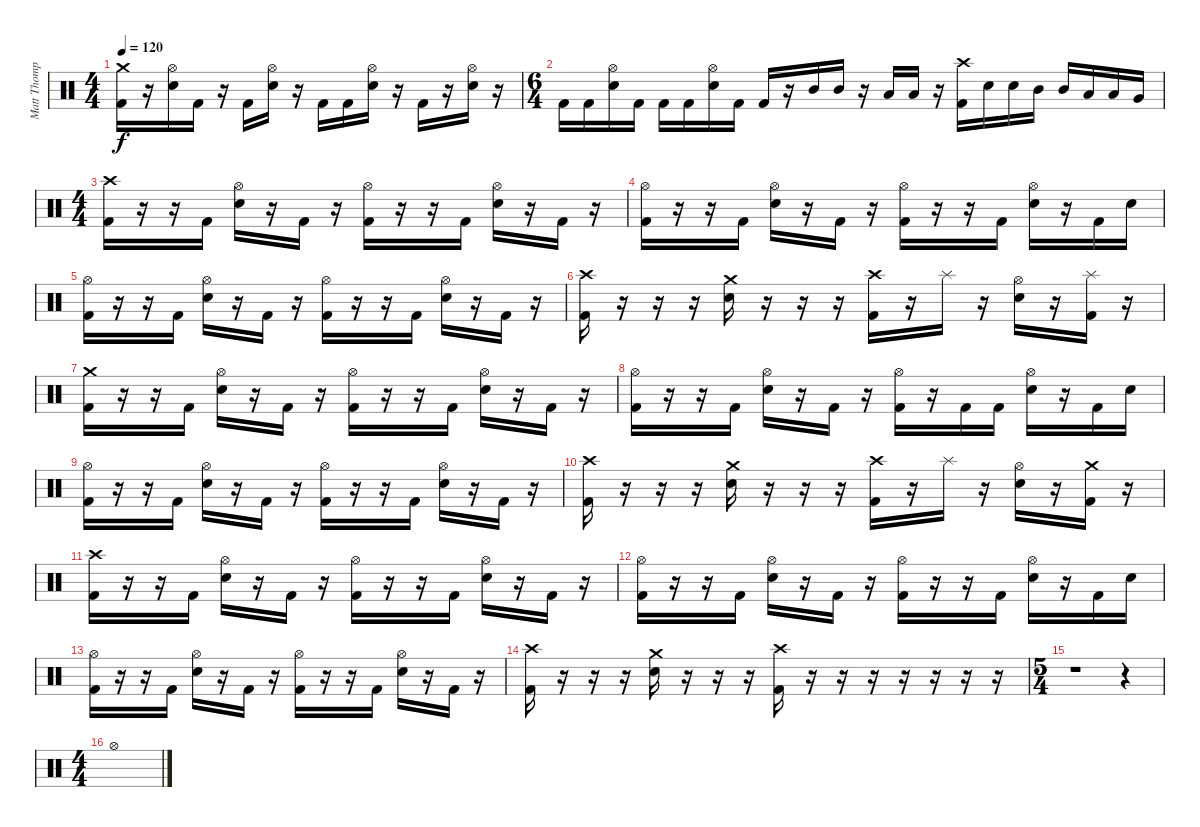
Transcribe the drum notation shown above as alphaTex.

\track ("Matt Thompson" "Matt Thomp") {instrument percussion}
\staff {score}
\articulation defaults
\ts (4 4)
\tempo 120
\clef neutral
\ks c
("Crash medium (hit)" "Kick (hit) 2").16{dy f} r.16 ("Hi-Hat (open)" "Snare (hit) 2").16 "Kick (hit) 2".16 r.16 "Kick (hit) 2".16 ("Hi-Hat (open)" "Snare (hit) 2").16 r.16 "Kick (hit) 2".16 "Kick (hit) 2".16 ("Hi-Hat (open)" "Snare (hit) 2").16 r.16 "Kick (hit) 2".16 r.16 ("Hi-Hat (open)" "Snare (hit) 2").16 r.16 |
\ts (6 4)
"Kick (hit) 2".16 "Kick (hit) 2".16 ("Hi-Hat (open)" "Snare (hit) 2").16 "Kick (hit) 2".16 "Kick (hit) 2".16 "Kick (hit) 2".16 ("Hi-Hat (open)" "Snare (hit) 2").16 "Kick (hit) 2".16 "Kick (hit) 2".16 r.16 "Mid Tom (hit)".16 "Mid Tom (hit)".16 r.16 "Low Tom (hit)".16 "Low Tom (hit)".16 r.16 ("Crash high (hit)" "Kick (hit) 2").16 "Snare (hit) 2".16 "Snare (hit) 2".16 "Mid Tom (hit)".16 "Mid Tom (hit)".16 "Low Tom (hit)".16 "Low Tom (hit)".16 "Very Low Tom (hit)".16 |
\ts (4 4)
("Crash high (hit)" "Kick (hit) 2").16 r.16 r.16 "Kick (hit) 2".16 ("Hi-Hat (open)" "Snare (hit) 2").16 r.16 "Kick (hit) 2".16 r.16 ("Hi-Hat (open)" "Kick (hit) 2").16 r.16 r.16 "Kick (hit) 2".16 ("Hi-Hat (open)" "Snare (hit) 2").16 r.16 "Kick (hit) 2".16 r.16 |
("Hi-Hat (open)" "Kick (hit) 2").16 r.16 r.16 "Kick (hit) 2".16 ("Hi-Hat (open)" "Snare (hit) 2").16 r.16 "Kick (hit) 2".16 r.16 ("Hi-Hat (open)" "Kick (hit) 2").16 r.16 r.16 "Kick (hit) 2".16 ("Hi-Hat (open)" "Snare (hit) 2").16 r.16 "Kick (hit) 2".16 "Snare (hit) 2".16 |
("Hi-Hat (open)" "Kick (hit) 2").16 r.16 r.16 "Kick (hit) 2".16 ("Hi-Hat (open)" "Snare (hit) 2").16 r.16 "Kick (hit) 2".16 r.16 ("Hi-Hat (open)" "Kick (hit) 2").16 r.16 r.16 "Kick (hit) 2".16 ("Hi-Hat (open)" "Snare (hit) 2").16 r.16 "Kick (hit) 2".16 r.16 |
("Crash high (hit)" "Kick (hit) 2").16 r.16 r.16 r.16 ("Crash medium (hit)" "Snare (hit) 2").16 r.16 r.16 r.16 ("Crash high (hit)" "Kick (hit) 2").16 r.16 "Splash (hit)".16 r.16 ("Hi-Hat (open)" "Snare (hit) 2").16 r.16 ("Splash (hit)" "Kick (hit) 2").16 r.16 |
("Crash medium (hit)" "Kick (hit) 2").16 r.16 r.16 "Kick (hit) 2".16 ("Hi-Hat (open)" "Snare (hit) 2").16 r.16 "Kick (hit) 2".16 r.16 ("Hi-Hat (open)" "Kick (hit) 2").16 r.16 r.16 "Kick (hit) 2".16 ("Hi-Hat (open)" "Snare (hit) 2").16 r.16 "Kick (hit) 2".16 r.16 |
("Hi-Hat (open)" "Kick (hit) 2").16 r.16 r.16 "Kick (hit) 2".16 ("Hi-Hat (open)" "Snare (hit) 2").16 r.16 "Kick (hit) 2".16 r.16 ("Hi-Hat (open)" "Kick (hit) 2").16 r.16 "Kick (hit) 2".16 "Kick (hit) 2".16 ("Hi-Hat (open)" "Snare (hit) 2").16 r.16 "Kick (hit) 2".16 "Snare (hit) 2".16 |
("Hi-Hat (open)" "Kick (hit) 2").16 r.16 r.16 "Kick (hit) 2".16 ("Hi-Hat (open)" "Snare (hit) 2").16 r.16 "Kick (hit) 2".16 r.16 ("Hi-Hat (open)" "Kick (hit) 2").16 r.16 r.16 "Kick (hit) 2".16 ("Hi-Hat (open)" "Snare (hit) 2").16 r.16 "Kick (hit) 2".16 r.16 |
("Crash high (hit)" "Kick (hit) 2").16 r.16 r.16 r.16 ("Crash medium (hit)" "Snare (hit) 2").16 r.16 r.16 r.16 ("Crash high (hit)" "Kick (hit) 2").16 r.16 "Splash (hit)".16 r.16 ("Hi-Hat (open)" "Snare (hit) 2").16 r.16 ("Crash medium (hit)" "Kick (hit) 2").16 r.16 |
("Crash high (hit)" "Kick (hit) 2").16 r.16 r.16 "Kick (hit) 2".16 ("Hi-Hat (open)" "Snare (hit) 2").16 r.16 "Kick (hit) 2".16 r.16 ("Hi-Hat (open)" "Kick (hit) 2").16 r.16 r.16 "Kick (hit) 2".16 ("Hi-Hat (open)" "Snare (hit) 2").16 r.16 "Kick (hit) 2".16 r.16 |
("Hi-Hat (open)" "Kick (hit) 2").16 r.16 r.16 "Kick (hit) 2".16 ("Hi-Hat (open)" "Snare (hit) 2").16 r.16 "Kick (hit) 2".16 r.16 ("Hi-Hat (open)" "Kick (hit) 2").16 r.16 r.16 "Kick (hit) 2".16 ("Hi-Hat (open)" "Snare (hit) 2").16 r.16 "Kick (hit) 2".16 "Snare (hit) 2".16 |
("Hi-Hat (open)" "Kick (hit) 2").16 r.16 r.16 "Kick (hit) 2".16 ("Hi-Hat (open)" "Snare (hit) 2").16 r.16 "Kick (hit) 2".16 r.16 ("Hi-Hat (open)" "Kick (hit) 2").16 r.16 r.16 "Kick (hit) 2".16 ("Hi-Hat (open)" "Snare (hit) 2").16 r.16 "Kick (hit) 2".16 r.16 |
("Crash high (hit)" "Kick (hit) 2").16 r.16 r.16 r.16 ("Crash medium (hit)" "Snare (hit) 2").16 r.16 r.16 r.16 ("Crash high (hit)" "Kick (hit) 2").16 r.16 r.16 r.16 r.16 r.16 r.16 r.16 |
\ts (5 4)
r.1 r.4 |
\ts (4 4)
"Hi-Hat (open)".1
